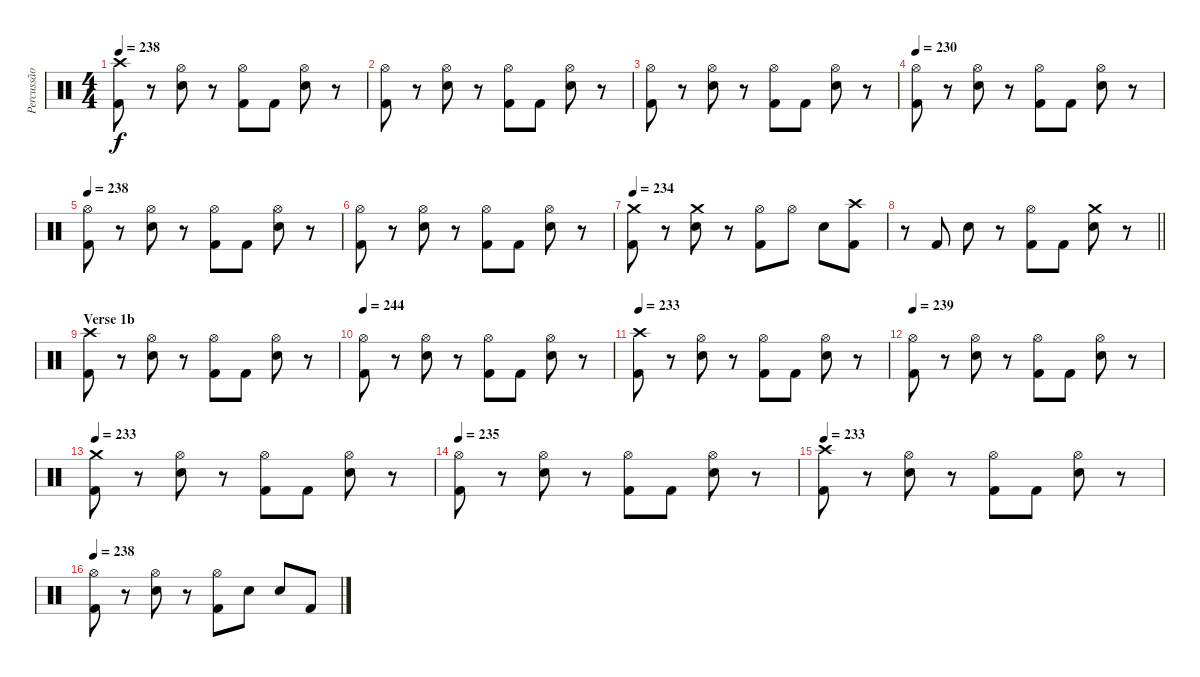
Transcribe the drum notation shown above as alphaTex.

\track ("Percussão" "Percussão") {instrument percussion}
\staff {score}
\articulation defaults
\ts (4 4)
\tempo 238
\clef neutral
\ks c
("Crash high (hit)" "Kick (hit) 2").8{dy f} r.8 ("Hi-Hat (open)" "Electric Snare (hit)").8 r.8 ("Hi-Hat (open)" "Kick (hit) 2").8 "Kick (hit) 2".8 ("Hi-Hat (open)" "Electric Snare (hit)").8 r.8 |
("Hi-Hat (open)" "Kick (hit) 2").8 r.8 ("Hi-Hat (open)" "Electric Snare (hit)").8 r.8 ("Hi-Hat (open)" "Kick (hit) 2").8 "Kick (hit) 2".8 ("Hi-Hat (open)" "Electric Snare (hit)").8 r.8 |
("Hi-Hat (open)" "Kick (hit) 2").8 r.8 ("Hi-Hat (open)" "Electric Snare (hit)").8 r.8 ("Hi-Hat (open)" "Kick (hit) 2").8 "Kick (hit) 2".8 ("Hi-Hat (open)" "Electric Snare (hit)").8 r.8 |
\tempo 230
("Hi-Hat (open)" "Kick (hit) 2").8 r.8 ("Hi-Hat (open)" "Electric Snare (hit)").8 r.8 ("Hi-Hat (open)" "Kick (hit) 2").8 "Kick (hit) 2".8 ("Hi-Hat (open)" "Electric Snare (hit)").8 r.8 |
\tempo 238
("Hi-Hat (open)" "Kick (hit) 2").8 r.8 ("Hi-Hat (open)" "Electric Snare (hit)").8 r.8 ("Hi-Hat (open)" "Kick (hit) 2").8 "Kick (hit) 2".8 ("Hi-Hat (open)" "Electric Snare (hit)").8 r.8 |
("Hi-Hat (open)" "Kick (hit) 2").8 r.8 ("Hi-Hat (open)" "Electric Snare (hit)").8 r.8 ("Hi-Hat (open)" "Kick (hit) 2").8 "Kick (hit) 2".8 ("Hi-Hat (open)" "Electric Snare (hit)").8 r.8 |
\tempo 234
("Crash medium (hit)" "Kick (hit) 2").8 r.8 ("Crash medium (hit)" "Electric Snare (hit)").8 r.8 ("Hi-Hat (open)" "Kick (hit) 2").8 "Hi-Hat (open)".8 "Electric Snare (hit)".8 ("Crash high (hit)" "Kick (hit) 2").8 |
\barLineRight lightlight
r.8 "Kick (hit) 2".8 "Electric Snare (hit)".8 r.8 ("Hi-Hat (open)" "Kick (hit) 2").8 "Kick (hit) 2".8 ("Crash medium (hit)" "Electric Snare (hit)").8 r.8 |
\section ("" "Verse 1b")
("Crash high (hit)" "Kick (hit) 2").8 r.8 ("Hi-Hat (open)" "Electric Snare (hit)").8 r.8 ("Hi-Hat (open)" "Kick (hit) 2").8 "Kick (hit) 2".8 ("Hi-Hat (open)" "Electric Snare (hit)").8 r.8 |
\tempo 244
("Hi-Hat (open)" "Kick (hit) 2").8 r.8 ("Hi-Hat (open)" "Electric Snare (hit)").8 r.8 ("Hi-Hat (open)" "Kick (hit) 2").8 "Kick (hit) 2".8 ("Hi-Hat (open)" "Electric Snare (hit)").8 r.8 |
\tempo 233
("Crash high (hit)" "Kick (hit) 2").8 r.8 ("Hi-Hat (open)" "Electric Snare (hit)").8 r.8 ("Hi-Hat (open)" "Kick (hit) 2").8 "Kick (hit) 2".8 ("Hi-Hat (open)" "Electric Snare (hit)").8 r.8 |
\tempo 239
("Hi-Hat (open)" "Kick (hit) 2").8 r.8 ("Hi-Hat (open)" "Electric Snare (hit)").8 r.8 ("Hi-Hat (open)" "Kick (hit) 2").8 "Kick (hit) 2".8 ("Hi-Hat (open)" "Electric Snare (hit)").8 r.8 |
\tempo 233
("Crash medium (hit)" "Kick (hit) 2").8 r.8 ("Hi-Hat (open)" "Electric Snare (hit)").8 r.8 ("Hi-Hat (open)" "Kick (hit) 2").8 "Kick (hit) 2".8 ("Hi-Hat (open)" "Electric Snare (hit)").8 r.8 |
\tempo 235
("Hi-Hat (open)" "Kick (hit) 2").8 r.8 ("Hi-Hat (open)" "Electric Snare (hit)").8 r.8 ("Hi-Hat (open)" "Kick (hit) 2").8 "Kick (hit) 2".8 ("Hi-Hat (open)" "Electric Snare (hit)").8 r.8 |
\tempo 233
("Crash high (hit)" "Kick (hit) 2").8 r.8 ("Hi-Hat (open)" "Electric Snare (hit)").8 r.8 ("Hi-Hat (open)" "Kick (hit) 2").8 "Kick (hit) 2".8 ("Hi-Hat (open)" "Electric Snare (hit)").8 r.8 |
\tempo 238
("Hi-Hat (open)" "Kick (hit) 2").8 r.8 ("Hi-Hat (open)" "Electric Snare (hit)").8 r.8 ("Hi-Hat (open)" "Kick (hit) 2").8 "Electric Snare (hit)".8 "Electric Snare (hit)".8 "Kick (hit) 2".8
